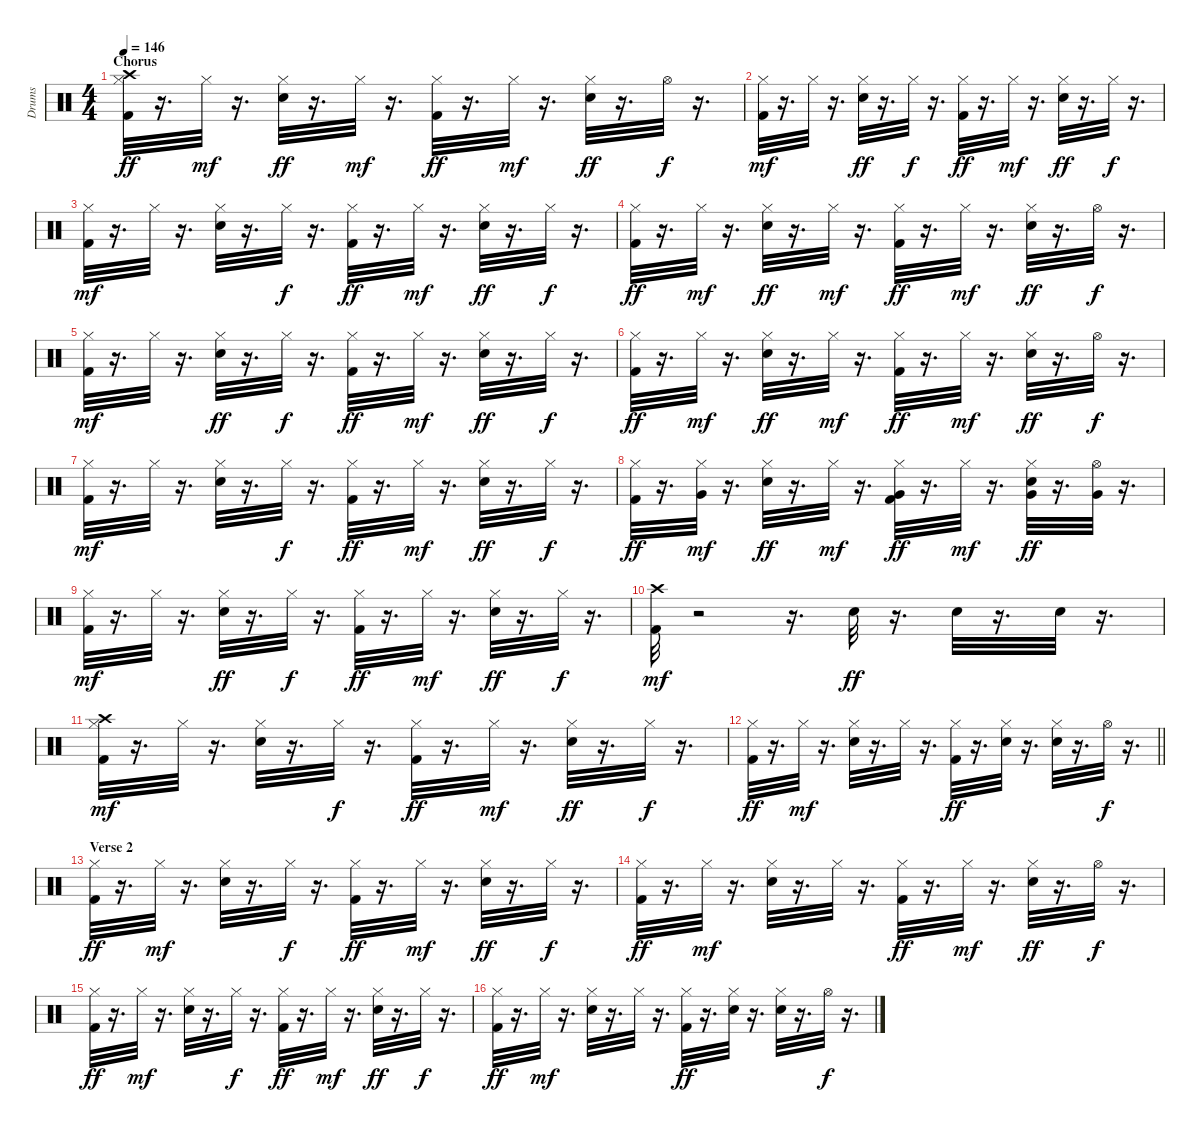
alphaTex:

\track ("Drums" "Drums") {instrument percussion}
\staff {score}
\articulation defaults
\ts (4 4)
\section ("" "Chorus")
\tempo 146
\clef neutral
\ks c
("Hi-Hat (closed)" "Kick (hit) 2" "Crash high (hit)").32{dy ff} r.16{d} "Hi-Hat (closed)".32{dy mf} r.16{d} ("Hi-Hat (closed)" "Snare (hit) 2").32{dy ff} r.16{d} "Hi-Hat (closed)".32{dy mf} r.16{d} ("Kick (hit) 2" "Hi-Hat (closed)").32{dy ff} r.16{d} "Hi-Hat (closed)".32{dy mf} r.16{d} ("Snare (hit) 2" "Hi-Hat (closed)").32{dy ff} r.16{d} "Hi-Hat (open)".32{dy f} r.16{d} |
("Kick (hit) 2" "Hi-Hat (closed)").32{dy mf} r.16{d} "Hi-Hat (closed)".32 r.16{d} ("Hi-Hat (closed)" "Snare (hit) 2").32{dy ff} r.16{d} "Hi-Hat (closed)".32{dy f} r.16{d} ("Kick (hit) 2" "Hi-Hat (closed)").32{dy ff} r.16{d} "Hi-Hat (closed)".32{dy mf} r.16{d} ("Snare (hit) 2" "Hi-Hat (closed)").32{dy ff} r.16{d} "Hi-Hat (closed)".32{dy f} r.16{d} |
("Kick (hit) 2" "Hi-Hat (closed)").32{dy mf} r.16{d} "Hi-Hat (closed)".32 r.16{d} ("Snare (hit) 2" "Hi-Hat (closed)").32 r.16{d} "Hi-Hat (closed)".32{dy f} r.16{d} ("Hi-Hat (closed)" "Kick (hit) 2").32{dy ff} r.16{d} "Hi-Hat (closed)".32{dy mf} r.16{d} ("Snare (hit) 2" "Hi-Hat (closed)").32{dy ff} r.16{d} "Hi-Hat (closed)".32{dy f} r.16{d} |
("Kick (hit) 2" "Hi-Hat (closed)").32{dy ff} r.16{d} "Hi-Hat (closed)".32{dy mf} r.16{d} ("Hi-Hat (closed)" "Snare (hit) 2").32{dy ff} r.16{d} "Hi-Hat (closed)".32{dy mf} r.16{d} ("Hi-Hat (closed)" "Kick (hit) 2").32{dy ff} r.16{d} "Hi-Hat (closed)".32{dy mf} r.16{d} ("Snare (hit) 2" "Hi-Hat (closed)").32{dy ff} r.16{d} "Hi-Hat (open)".32{dy f} r.16{d} |
("Kick (hit) 2" "Hi-Hat (closed)").32{dy mf} r.16{d} "Hi-Hat (closed)".32 r.16{d} ("Hi-Hat (closed)" "Snare (hit) 2").32{dy ff} r.16{d} "Hi-Hat (closed)".32{dy f} r.16{d} ("Hi-Hat (closed)" "Kick (hit) 2").32{dy ff} r.16{d} "Hi-Hat (closed)".32{dy mf} r.16{d} ("Snare (hit) 2" "Hi-Hat (closed)").32{dy ff} r.16{d} "Hi-Hat (closed)".32{dy f} r.16{d} |
("Kick (hit) 2" "Hi-Hat (closed)").32{dy ff} r.16{d} "Hi-Hat (closed)".32{dy mf} r.16{d} ("Hi-Hat (closed)" "Snare (hit) 2").32{dy ff} r.16{d} "Hi-Hat (closed)".32{dy mf} r.16{d} ("Hi-Hat (closed)" "Kick (hit) 2").32{dy ff} r.16{d} "Hi-Hat (closed)".32{dy mf} r.16{d} ("Snare (hit) 2" "Hi-Hat (closed)").32{dy ff} r.16{d} "Hi-Hat (open)".32{dy f} r.16{d} |
("Kick (hit) 2" "Hi-Hat (closed)").32{dy mf} r.16{d} "Hi-Hat (closed)".32 r.16{d} ("Snare (hit) 2" "Hi-Hat (closed)").32 r.16{d} "Hi-Hat (closed)".32{dy f} r.16{d} ("Kick (hit) 2" "Hi-Hat (closed)").32{dy ff} r.16{d} "Hi-Hat (closed)".32{dy mf} r.16{d} ("Snare (hit) 2" "Hi-Hat (closed)").32{dy ff} r.16{d} "Hi-Hat (closed)".32{dy f} r.16{d} |
("Kick (hit) 2" "Hi-Hat (closed)").32{dy ff} r.16{d} ("Hi-Hat (closed)" "Very Low Tom (hit)").32{dy mf} r.16{d} ("Hi-Hat (closed)" "Snare (hit) 2").32{dy ff} r.16{d} "Hi-Hat (closed)".32{dy mf} r.16{d} ("Kick (hit) 2" "Hi-Hat (closed)" "Very Low Tom (hit)").32{dy ff} r.16{d} "Hi-Hat (closed)".32{dy mf} r.16{d} ("Hi-Hat (closed)" "Snare (hit) 2" "Very Low Tom (hit)").32{dy ff} r.16{d} ("Hi-Hat (open)" "Very Low Tom (hit)").32 r.16{d} |
("Kick (hit) 2" "Hi-Hat (closed)").32{dy mf} r.16{d} "Hi-Hat (closed)".32 r.16{d} ("Hi-Hat (closed)" "Snare (hit) 2").32{dy ff} r.16{d} "Hi-Hat (closed)".32{dy f} r.16{d} ("Hi-Hat (closed)" "Kick (hit) 2").32{dy ff} r.16{d} "Hi-Hat (closed)".32{dy mf} r.16{d} ("Hi-Hat (closed)" "Snare (hit) 2").32{dy ff} r.16{d} "Hi-Hat (closed)".32{dy f} r.16{d} |
("Kick (hit) 2" "Crash high (hit)").32{dy mf} r.2 r.16{d} "Snare (hit) 2".32{dy ff} r.16{d} "Snare (hit) 2".32 r.16{d} "Snare (hit) 2".32 r.16{d} |
("Kick (hit) 2" "Hi-Hat (closed)" "Crash high (hit)").32{dy mf} r.16{d} "Hi-Hat (closed)".32 r.16{d} ("Snare (hit) 2" "Hi-Hat (closed)").32 r.16{d} "Hi-Hat (closed)".32{dy f} r.16{d} ("Kick (hit) 2" "Hi-Hat (closed)").32{dy ff} r.16{d} "Hi-Hat (closed)".32{dy mf} r.16{d} ("Hi-Hat (closed)" "Snare (hit) 2").32{dy ff} r.16{d} "Hi-Hat (closed)".32{dy f} r.16{d} |
\barLineRight lightlight
("Hi-Hat (closed)" "Kick (hit) 2").32{dy ff} r.16{d} "Hi-Hat (closed)".32{dy mf} r.16{d} ("Snare (hit) 2" "Hi-Hat (closed)").32 r.16{d} "Hi-Hat (closed)".32 r.16{d} ("Kick (hit) 2" "Hi-Hat (closed)").32{dy ff} r.16{d} ("Hi-Hat (closed)" "Snare (hit) 2").32 r.16{d} ("Hi-Hat (closed)" "Snare (hit) 2").32 r.16{d} "Hi-Hat (open)".32{dy f} r.16{d} |
\section ("" "Verse 2")
("Hi-Hat (closed)" "Kick (hit) 2").32{dy ff} r.16{d} "Hi-Hat (closed)".32{dy mf} r.16{d} ("Snare (hit) 2" "Hi-Hat (closed)").32 r.16{d} "Hi-Hat (closed)".32{dy f} r.16{d} ("Hi-Hat (closed)" "Kick (hit) 2").32{dy ff} r.16{d} "Hi-Hat (closed)".32{dy mf} r.16{d} ("Snare (hit) 2" "Hi-Hat (closed)").32{dy ff} r.16{d} "Hi-Hat (closed)".32{dy f} r.16{d} |
("Hi-Hat (closed)" "Kick (hit) 2").32{dy ff} r.16{d} "Hi-Hat (closed)".32{dy mf} r.16{d} ("Snare (hit) 2" "Hi-Hat (closed)").32 r.16{d} "Hi-Hat (closed)".32 r.16{d} ("Kick (hit) 2" "Hi-Hat (closed)").32{dy ff} r.16{d} "Hi-Hat (closed)".32{dy mf} r.16{d} ("Hi-Hat (closed)" "Snare (hit) 2").32{dy ff} r.16{d} "Hi-Hat (open)".32{dy f} r.16{d} |
("Hi-Hat (closed)" "Kick (hit) 2").32{dy ff} r.16{d} "Hi-Hat (closed)".32{dy mf} r.16{d} ("Snare (hit) 2" "Hi-Hat (closed)").32 r.16{d} "Hi-Hat (closed)".32{dy f} r.16{d} ("Kick (hit) 2" "Hi-Hat (closed)").32{dy ff} r.16{d} "Hi-Hat (closed)".32{dy mf} r.16{d} ("Snare (hit) 2" "Hi-Hat (closed)").32{dy ff} r.16{d} "Hi-Hat (closed)".32{dy f} r.16{d} |
("Hi-Hat (closed)" "Kick (hit) 2").32{dy ff} r.16{d} "Hi-Hat (closed)".32{dy mf} r.16{d} ("Snare (hit) 2" "Hi-Hat (closed)").32 r.16{d} "Hi-Hat (closed)".32 r.16{d} ("Kick (hit) 2" "Hi-Hat (closed)").32{dy ff} r.16{d} ("Hi-Hat (closed)" "Snare (hit) 2").32 r.16{d} ("Hi-Hat (closed)" "Snare (hit) 2").32 r.16{d} "Hi-Hat (open)".32{dy f} r.16{d}
